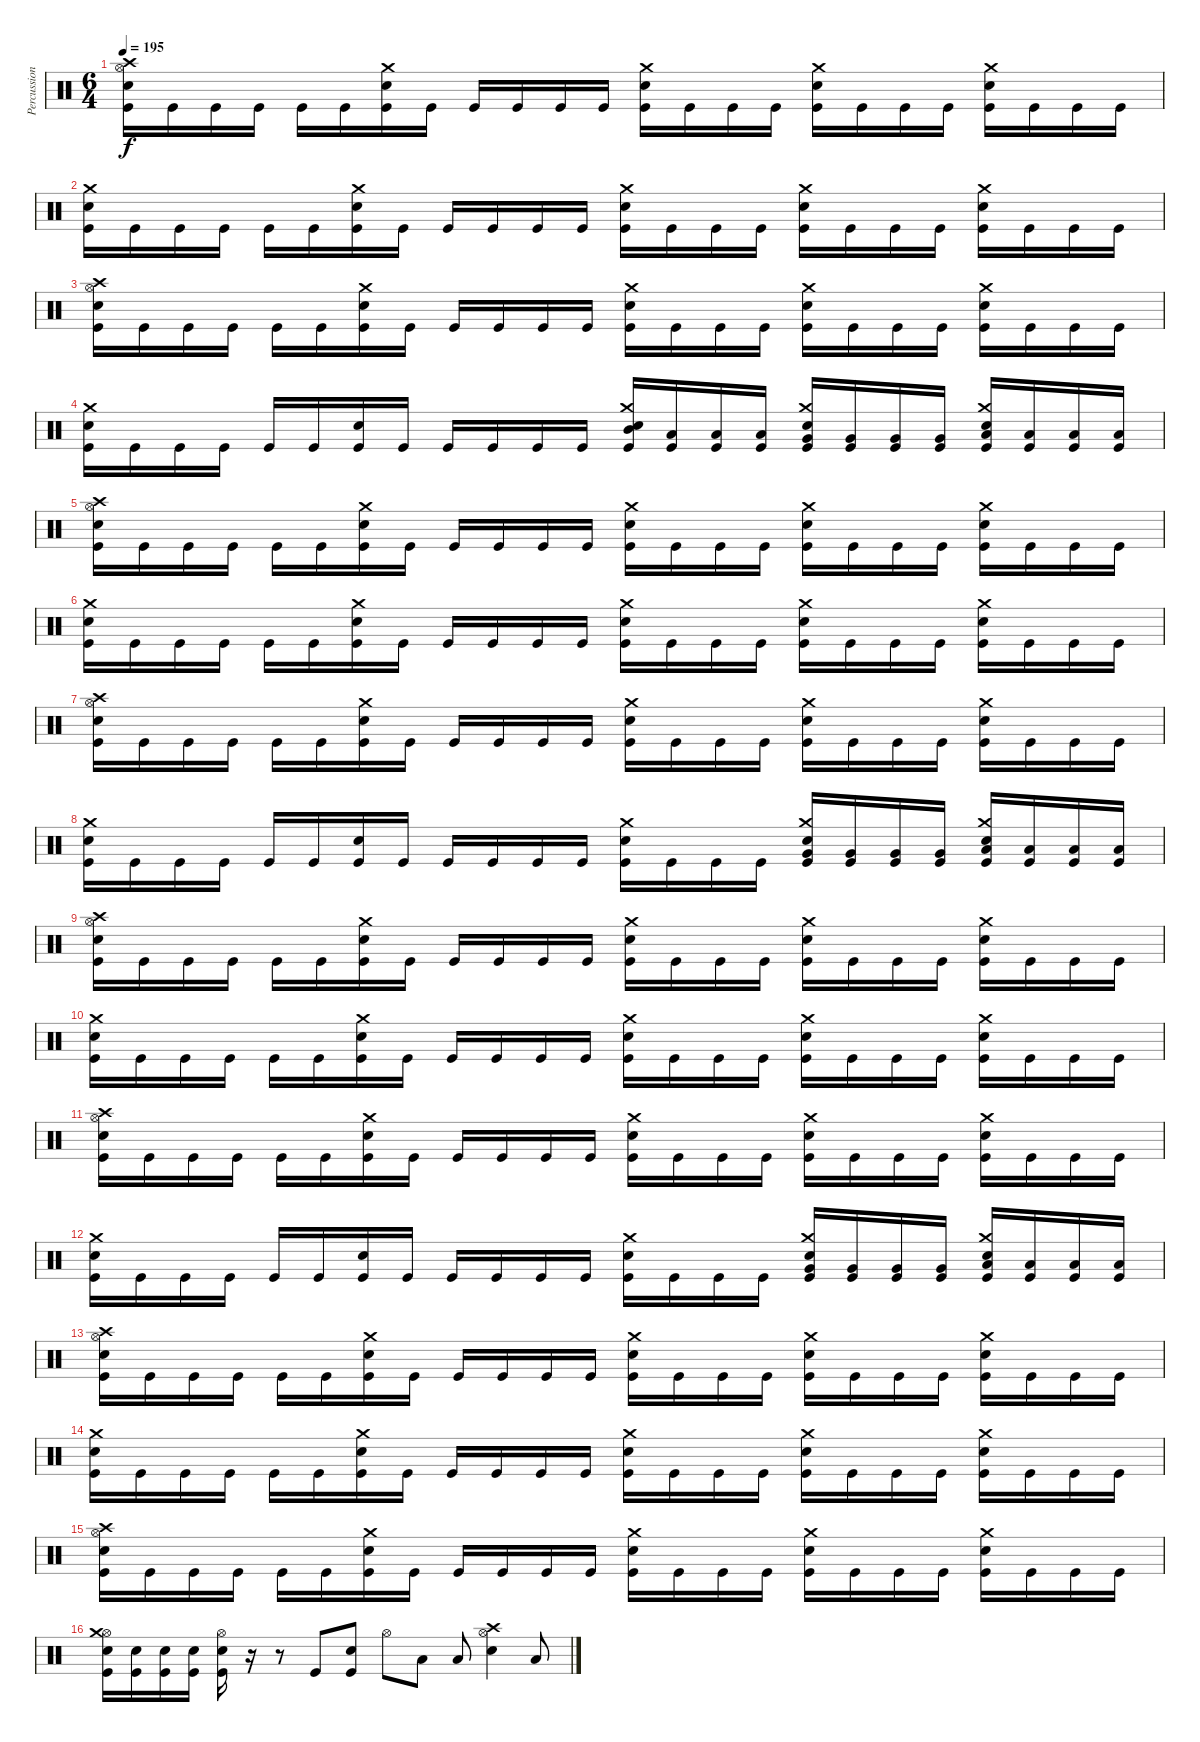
\track ("Percussion" "Percussion") {instrument percussion}
\staff {score}
\articulation defaults
\ts (6 4)
\tempo 195
\clef neutral
\ks c
("Crash high (hit)" "Hi-Hat (open)" "Electric Snare (hit)" "Kick (hit)").16{dy f} "Kick (hit)".16 "Kick (hit)".16 "Kick (hit)".16 "Kick (hit)".16 "Kick (hit)".16 ("Crash medium (hit)" "Electric Snare (hit)" "Kick (hit)").16 "Kick (hit)".16 "Kick (hit)".16 "Kick (hit)".16 "Kick (hit)".16 "Kick (hit)".16 ("Crash medium (hit)" "Electric Snare (hit)" "Kick (hit)").16 "Kick (hit)".16 "Kick (hit)".16 "Kick (hit)".16 ("Crash medium (hit)" "Electric Snare (hit)" "Kick (hit)").16 "Kick (hit)".16 "Kick (hit)".16 "Kick (hit)".16 ("Crash medium (hit)" "Electric Snare (hit)" "Kick (hit)").16 "Kick (hit)".16 "Kick (hit)".16 "Kick (hit)".16 |
("Crash medium (hit)" "Electric Snare (hit)" "Kick (hit)").16 "Kick (hit)".16 "Kick (hit)".16 "Kick (hit)".16 "Kick (hit)".16 "Kick (hit)".16 ("Crash medium (hit)" "Electric Snare (hit)" "Kick (hit)").16 "Kick (hit)".16 "Kick (hit)".16 "Kick (hit)".16 "Kick (hit)".16 "Kick (hit)".16 ("Crash medium (hit)" "Electric Snare (hit)" "Kick (hit)").16 "Kick (hit)".16 "Kick (hit)".16 "Kick (hit)".16 ("Crash medium (hit)" "Electric Snare (hit)" "Kick (hit)").16 "Kick (hit)".16 "Kick (hit)".16 "Kick (hit)".16 ("Crash medium (hit)" "Electric Snare (hit)" "Kick (hit)").16 "Kick (hit)".16 "Kick (hit)".16 "Kick (hit)".16 |
("Crash high (hit)" "Hi-Hat (open)" "Electric Snare (hit)" "Kick (hit)").16 "Kick (hit)".16 "Kick (hit)".16 "Kick (hit)".16 "Kick (hit)".16 "Kick (hit)".16 ("Crash medium (hit)" "Electric Snare (hit)" "Kick (hit)").16 "Kick (hit)".16 "Kick (hit)".16 "Kick (hit)".16 "Kick (hit)".16 "Kick (hit)".16 ("Crash medium (hit)" "Electric Snare (hit)" "Kick (hit)").16 "Kick (hit)".16 "Kick (hit)".16 "Kick (hit)".16 ("Crash medium (hit)" "Electric Snare (hit)" "Kick (hit)").16 "Kick (hit)".16 "Kick (hit)".16 "Kick (hit)".16 ("Crash medium (hit)" "Electric Snare (hit)" "Kick (hit)").16 "Kick (hit)".16 "Kick (hit)".16 "Kick (hit)".16 |
("Crash medium (hit)" "Electric Snare (hit)" "Kick (hit)").16 "Kick (hit)".16 "Kick (hit)".16 "Kick (hit)".16 "Kick (hit)".16 "Kick (hit)".16 ("Electric Snare (hit)" "Kick (hit)").16 "Kick (hit)".16 "Kick (hit)".16 "Kick (hit)".16 "Kick (hit)".16 "Kick (hit)".16 ("Mid Tom (hit)" "Crash medium (hit)" "Electric Snare (hit)" "Kick (hit)").16 ("Low Tom (hit)" "Kick (hit)").16 ("Low Tom (hit)" "Kick (hit)").16 ("Low Tom (hit)" "Kick (hit)").16 ("Very Low Tom (hit)" "Crash medium (hit)" "Electric Snare (hit)" "Kick (hit)").16 ("Very Low Tom (hit)" "Kick (hit)").16 ("Very Low Tom (hit)" "Kick (hit)").16 ("Very Low Tom (hit)" "Kick (hit)").16 ("Low Floor Tom (hit)" "Crash medium (hit)" "Electric Snare (hit)" "Kick (hit)").16 ("Low Floor Tom (hit)" "Kick (hit)").16 ("Low Floor Tom (hit)" "Kick (hit)").16 ("Low Floor Tom (hit)" "Kick (hit)").16 |
("Crash high (hit)" "Hi-Hat (open)" "Electric Snare (hit)" "Kick (hit)").16 "Kick (hit)".16 "Kick (hit)".16 "Kick (hit)".16 "Kick (hit)".16 "Kick (hit)".16 ("Crash medium (hit)" "Electric Snare (hit)" "Kick (hit)").16 "Kick (hit)".16 "Kick (hit)".16 "Kick (hit)".16 "Kick (hit)".16 "Kick (hit)".16 ("Crash medium (hit)" "Electric Snare (hit)" "Kick (hit)").16 "Kick (hit)".16 "Kick (hit)".16 "Kick (hit)".16 ("Crash medium (hit)" "Electric Snare (hit)" "Kick (hit)").16 "Kick (hit)".16 "Kick (hit)".16 "Kick (hit)".16 ("Crash medium (hit)" "Electric Snare (hit)" "Kick (hit)").16 "Kick (hit)".16 "Kick (hit)".16 "Kick (hit)".16 |
("Crash medium (hit)" "Electric Snare (hit)" "Kick (hit)").16 "Kick (hit)".16 "Kick (hit)".16 "Kick (hit)".16 "Kick (hit)".16 "Kick (hit)".16 ("Crash medium (hit)" "Electric Snare (hit)" "Kick (hit)").16 "Kick (hit)".16 "Kick (hit)".16 "Kick (hit)".16 "Kick (hit)".16 "Kick (hit)".16 ("Crash medium (hit)" "Electric Snare (hit)" "Kick (hit)").16 "Kick (hit)".16 "Kick (hit)".16 "Kick (hit)".16 ("Crash medium (hit)" "Electric Snare (hit)" "Kick (hit)").16 "Kick (hit)".16 "Kick (hit)".16 "Kick (hit)".16 ("Crash medium (hit)" "Electric Snare (hit)" "Kick (hit)").16 "Kick (hit)".16 "Kick (hit)".16 "Kick (hit)".16 |
("Crash high (hit)" "Hi-Hat (open)" "Electric Snare (hit)" "Kick (hit)").16 "Kick (hit)".16 "Kick (hit)".16 "Kick (hit)".16 "Kick (hit)".16 "Kick (hit)".16 ("Crash medium (hit)" "Electric Snare (hit)" "Kick (hit)").16 "Kick (hit)".16 "Kick (hit)".16 "Kick (hit)".16 "Kick (hit)".16 "Kick (hit)".16 ("Crash medium (hit)" "Electric Snare (hit)" "Kick (hit)").16 "Kick (hit)".16 "Kick (hit)".16 "Kick (hit)".16 ("Crash medium (hit)" "Electric Snare (hit)" "Kick (hit)").16 "Kick (hit)".16 "Kick (hit)".16 "Kick (hit)".16 ("Crash medium (hit)" "Electric Snare (hit)" "Kick (hit)").16 "Kick (hit)".16 "Kick (hit)".16 "Kick (hit)".16 |
("Crash medium (hit)" "Electric Snare (hit)" "Kick (hit)").16 "Kick (hit)".16 "Kick (hit)".16 "Kick (hit)".16 "Kick (hit)".16 "Kick (hit)".16 ("Electric Snare (hit)" "Kick (hit)").16 "Kick (hit)".16 "Kick (hit)".16 "Kick (hit)".16 "Kick (hit)".16 "Kick (hit)".16 ("Crash medium (hit)" "Electric Snare (hit)" "Kick (hit)").16 "Kick (hit)".16 "Kick (hit)".16 "Kick (hit)".16 ("Very Low Tom (hit)" "Crash medium (hit)" "Electric Snare (hit)" "Kick (hit)").16 ("Very Low Tom (hit)" "Kick (hit)").16 ("Very Low Tom (hit)" "Kick (hit)").16 ("Very Low Tom (hit)" "Kick (hit)").16 ("Low Floor Tom (hit)" "Crash medium (hit)" "Electric Snare (hit)" "Kick (hit)").16 ("Low Floor Tom (hit)" "Kick (hit)").16 ("Low Floor Tom (hit)" "Kick (hit)").16 ("Low Floor Tom (hit)" "Kick (hit)").16 |
("Crash high (hit)" "Hi-Hat (open)" "Electric Snare (hit)" "Kick (hit)").16 "Kick (hit)".16 "Kick (hit)".16 "Kick (hit)".16 "Kick (hit)".16 "Kick (hit)".16 ("Crash medium (hit)" "Electric Snare (hit)" "Kick (hit)").16 "Kick (hit)".16 "Kick (hit)".16 "Kick (hit)".16 "Kick (hit)".16 "Kick (hit)".16 ("Crash medium (hit)" "Electric Snare (hit)" "Kick (hit)").16 "Kick (hit)".16 "Kick (hit)".16 "Kick (hit)".16 ("Crash medium (hit)" "Electric Snare (hit)" "Kick (hit)").16 "Kick (hit)".16 "Kick (hit)".16 "Kick (hit)".16 ("Crash medium (hit)" "Electric Snare (hit)" "Kick (hit)").16 "Kick (hit)".16 "Kick (hit)".16 "Kick (hit)".16 |
("Crash medium (hit)" "Electric Snare (hit)" "Kick (hit)").16 "Kick (hit)".16 "Kick (hit)".16 "Kick (hit)".16 "Kick (hit)".16 "Kick (hit)".16 ("Crash medium (hit)" "Electric Snare (hit)" "Kick (hit)").16 "Kick (hit)".16 "Kick (hit)".16 "Kick (hit)".16 "Kick (hit)".16 "Kick (hit)".16 ("Crash medium (hit)" "Electric Snare (hit)" "Kick (hit)").16 "Kick (hit)".16 "Kick (hit)".16 "Kick (hit)".16 ("Crash medium (hit)" "Electric Snare (hit)" "Kick (hit)").16 "Kick (hit)".16 "Kick (hit)".16 "Kick (hit)".16 ("Crash medium (hit)" "Electric Snare (hit)" "Kick (hit)").16 "Kick (hit)".16 "Kick (hit)".16 "Kick (hit)".16 |
("Crash high (hit)" "Hi-Hat (open)" "Electric Snare (hit)" "Kick (hit)").16 "Kick (hit)".16 "Kick (hit)".16 "Kick (hit)".16 "Kick (hit)".16 "Kick (hit)".16 ("Crash medium (hit)" "Electric Snare (hit)" "Kick (hit)").16 "Kick (hit)".16 "Kick (hit)".16 "Kick (hit)".16 "Kick (hit)".16 "Kick (hit)".16 ("Crash medium (hit)" "Electric Snare (hit)" "Kick (hit)").16 "Kick (hit)".16 "Kick (hit)".16 "Kick (hit)".16 ("Crash medium (hit)" "Electric Snare (hit)" "Kick (hit)").16 "Kick (hit)".16 "Kick (hit)".16 "Kick (hit)".16 ("Crash medium (hit)" "Electric Snare (hit)" "Kick (hit)").16 "Kick (hit)".16 "Kick (hit)".16 "Kick (hit)".16 |
("Crash medium (hit)" "Electric Snare (hit)" "Kick (hit)").16 "Kick (hit)".16 "Kick (hit)".16 "Kick (hit)".16 "Kick (hit)".16 "Kick (hit)".16 ("Electric Snare (hit)" "Kick (hit)").16 "Kick (hit)".16 "Kick (hit)".16 "Kick (hit)".16 "Kick (hit)".16 "Kick (hit)".16 ("Crash medium (hit)" "Electric Snare (hit)" "Kick (hit)").16 "Kick (hit)".16 "Kick (hit)".16 "Kick (hit)".16 ("Very Low Tom (hit)" "Crash medium (hit)" "Electric Snare (hit)" "Kick (hit)").16 ("Very Low Tom (hit)" "Kick (hit)").16 ("Very Low Tom (hit)" "Kick (hit)").16 ("Very Low Tom (hit)" "Kick (hit)").16 ("Low Floor Tom (hit)" "Crash medium (hit)" "Electric Snare (hit)" "Kick (hit)").16 ("Low Floor Tom (hit)" "Kick (hit)").16 ("Low Floor Tom (hit)" "Kick (hit)").16 ("Low Floor Tom (hit)" "Kick (hit)").16 |
("Crash high (hit)" "Hi-Hat (open)" "Electric Snare (hit)" "Kick (hit)").16 "Kick (hit)".16 "Kick (hit)".16 "Kick (hit)".16 "Kick (hit)".16 "Kick (hit)".16 ("Crash medium (hit)" "Electric Snare (hit)" "Kick (hit)").16 "Kick (hit)".16 "Kick (hit)".16 "Kick (hit)".16 "Kick (hit)".16 "Kick (hit)".16 ("Crash medium (hit)" "Electric Snare (hit)" "Kick (hit)").16 "Kick (hit)".16 "Kick (hit)".16 "Kick (hit)".16 ("Crash medium (hit)" "Electric Snare (hit)" "Kick (hit)").16 "Kick (hit)".16 "Kick (hit)".16 "Kick (hit)".16 ("Crash medium (hit)" "Electric Snare (hit)" "Kick (hit)").16 "Kick (hit)".16 "Kick (hit)".16 "Kick (hit)".16 |
("Crash medium (hit)" "Electric Snare (hit)" "Kick (hit)").16 "Kick (hit)".16 "Kick (hit)".16 "Kick (hit)".16 "Kick (hit)".16 "Kick (hit)".16 ("Crash medium (hit)" "Electric Snare (hit)" "Kick (hit)").16 "Kick (hit)".16 "Kick (hit)".16 "Kick (hit)".16 "Kick (hit)".16 "Kick (hit)".16 ("Crash medium (hit)" "Electric Snare (hit)" "Kick (hit)").16 "Kick (hit)".16 "Kick (hit)".16 "Kick (hit)".16 ("Crash medium (hit)" "Electric Snare (hit)" "Kick (hit)").16 "Kick (hit)".16 "Kick (hit)".16 "Kick (hit)".16 ("Crash medium (hit)" "Electric Snare (hit)" "Kick (hit)").16 "Kick (hit)".16 "Kick (hit)".16 "Kick (hit)".16 |
("Crash high (hit)" "Hi-Hat (open)" "Electric Snare (hit)" "Kick (hit)").16 "Kick (hit)".16 "Kick (hit)".16 "Kick (hit)".16 "Kick (hit)".16 "Kick (hit)".16 ("Crash medium (hit)" "Electric Snare (hit)" "Kick (hit)").16 "Kick (hit)".16 "Kick (hit)".16 "Kick (hit)".16 "Kick (hit)".16 "Kick (hit)".16 ("Crash medium (hit)" "Electric Snare (hit)" "Kick (hit)").16 "Kick (hit)".16 "Kick (hit)".16 "Kick (hit)".16 ("Crash medium (hit)" "Electric Snare (hit)" "Kick (hit)").16 "Kick (hit)".16 "Kick (hit)".16 "Kick (hit)".16 ("Crash medium (hit)" "Electric Snare (hit)" "Kick (hit)").16 "Kick (hit)".16 "Kick (hit)".16 "Kick (hit)".16 |
("Hi-Hat (open)" "Crash medium (hit)" "Electric Snare (hit)" "Kick (hit)").16 ("Electric Snare (hit)" "Kick (hit)").16 ("Electric Snare (hit)" "Kick (hit)").16 ("Electric Snare (hit)" "Kick (hit)").16 ("Hi-Hat (open)" "Electric Snare (hit)" "Kick (hit)").16 r.16 r.8 "Kick (hit)".8 ("Electric Snare (hit)" "Kick (hit)").8 "Hi-Hat (open)".8 "Low Floor Tom (hit)".8 "Low Floor Tom (hit)".8 ("Hi-Hat (open)" "Crash high (hit)" "Electric Snare (hit)").4 "Low Floor Tom (hit)".8
